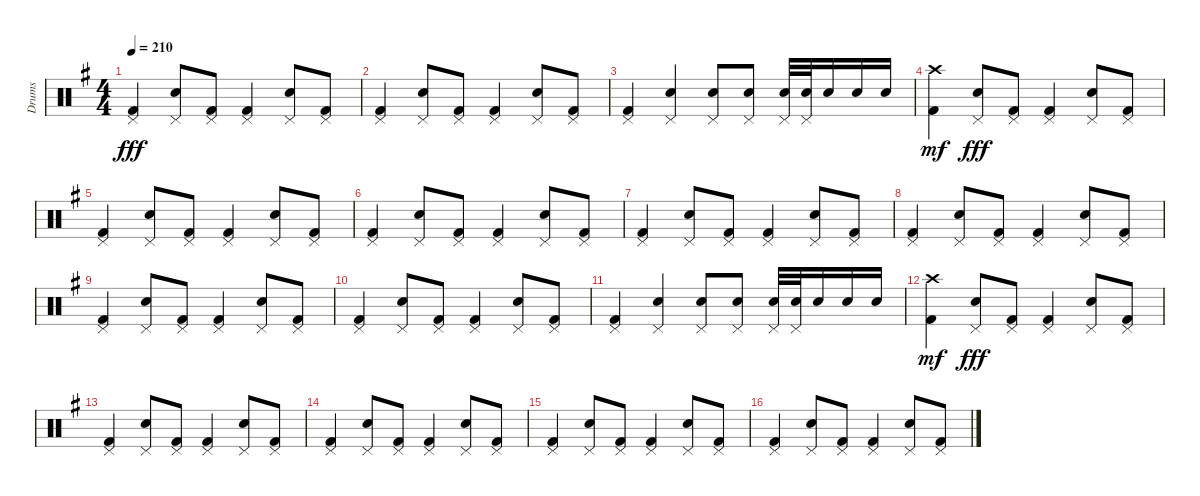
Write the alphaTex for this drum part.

\track ("Drums" "Drums") {instrument percussion}
\staff {score}
\articulation defaults
\ts (4 4)
\tempo 210
\clef neutral
\ks g
("Kick (hit) 2" "Pedal Hi-Hat (hit)").4{dy fff} ("Electric Snare (hit)" "Pedal Hi-Hat (hit)").8 ("Kick (hit) 2" "Pedal Hi-Hat (hit)").8 ("Kick (hit) 2" "Pedal Hi-Hat (hit)").4 ("Electric Snare (hit)" "Pedal Hi-Hat (hit)").8 ("Kick (hit) 2" "Pedal Hi-Hat (hit)").8 |
("Kick (hit) 2" "Pedal Hi-Hat (hit)").4 ("Electric Snare (hit)" "Pedal Hi-Hat (hit)").8 ("Kick (hit) 2" "Pedal Hi-Hat (hit)").8 ("Kick (hit) 2" "Pedal Hi-Hat (hit)").4 ("Electric Snare (hit)" "Pedal Hi-Hat (hit)").8 ("Kick (hit) 2" "Pedal Hi-Hat (hit)").8 |
("Kick (hit) 2" "Pedal Hi-Hat (hit)").4 ("Electric Snare (hit)" "Pedal Hi-Hat (hit)").4 ("Electric Snare (hit)" "Pedal Hi-Hat (hit)").8 ("Electric Snare (hit)" "Pedal Hi-Hat (hit)").8 ("Electric Snare (hit)" "Pedal Hi-Hat (hit)").32 ("Electric Snare (hit)" "Pedal Hi-Hat (hit)").32 "Electric Snare (hit)".16 "Electric Snare (hit)".16 "Electric Snare (hit)".16 |
("Kick (hit) 2" "Crash high (hit)").4{dy mf} ("Electric Snare (hit)" "Pedal Hi-Hat (hit)").8{dy fff} ("Kick (hit) 2" "Pedal Hi-Hat (hit)").8 ("Kick (hit) 2" "Pedal Hi-Hat (hit)").4 ("Electric Snare (hit)" "Pedal Hi-Hat (hit)").8 ("Kick (hit) 2" "Pedal Hi-Hat (hit)").8 |
("Kick (hit) 2" "Pedal Hi-Hat (hit)").4 ("Electric Snare (hit)" "Pedal Hi-Hat (hit)").8 ("Kick (hit) 2" "Pedal Hi-Hat (hit)").8 ("Kick (hit) 2" "Pedal Hi-Hat (hit)").4 ("Electric Snare (hit)" "Pedal Hi-Hat (hit)").8 ("Kick (hit) 2" "Pedal Hi-Hat (hit)").8 |
("Kick (hit) 2" "Pedal Hi-Hat (hit)").4 ("Electric Snare (hit)" "Pedal Hi-Hat (hit)").8 ("Kick (hit) 2" "Pedal Hi-Hat (hit)").8 ("Kick (hit) 2" "Pedal Hi-Hat (hit)").4 ("Electric Snare (hit)" "Pedal Hi-Hat (hit)").8 ("Kick (hit) 2" "Pedal Hi-Hat (hit)").8 |
("Kick (hit) 2" "Pedal Hi-Hat (hit)").4 ("Electric Snare (hit)" "Pedal Hi-Hat (hit)").8 ("Kick (hit) 2" "Pedal Hi-Hat (hit)").8 ("Kick (hit) 2" "Pedal Hi-Hat (hit)").4 ("Electric Snare (hit)" "Pedal Hi-Hat (hit)").8 ("Kick (hit) 2" "Pedal Hi-Hat (hit)").8 |
("Kick (hit) 2" "Pedal Hi-Hat (hit)").4 ("Electric Snare (hit)" "Pedal Hi-Hat (hit)").8 ("Kick (hit) 2" "Pedal Hi-Hat (hit)").8 ("Kick (hit) 2" "Pedal Hi-Hat (hit)").4 ("Electric Snare (hit)" "Pedal Hi-Hat (hit)").8 ("Kick (hit) 2" "Pedal Hi-Hat (hit)").8 |
("Kick (hit) 2" "Pedal Hi-Hat (hit)").4 ("Electric Snare (hit)" "Pedal Hi-Hat (hit)").8 ("Kick (hit) 2" "Pedal Hi-Hat (hit)").8 ("Kick (hit) 2" "Pedal Hi-Hat (hit)").4 ("Electric Snare (hit)" "Pedal Hi-Hat (hit)").8 ("Kick (hit) 2" "Pedal Hi-Hat (hit)").8 |
("Kick (hit) 2" "Pedal Hi-Hat (hit)").4 ("Electric Snare (hit)" "Pedal Hi-Hat (hit)").8 ("Kick (hit) 2" "Pedal Hi-Hat (hit)").8 ("Kick (hit) 2" "Pedal Hi-Hat (hit)").4 ("Electric Snare (hit)" "Pedal Hi-Hat (hit)").8 ("Kick (hit) 2" "Pedal Hi-Hat (hit)").8 |
("Kick (hit) 2" "Pedal Hi-Hat (hit)").4 ("Electric Snare (hit)" "Pedal Hi-Hat (hit)").4 ("Electric Snare (hit)" "Pedal Hi-Hat (hit)").8 ("Electric Snare (hit)" "Pedal Hi-Hat (hit)").8 ("Electric Snare (hit)" "Pedal Hi-Hat (hit)").32 ("Electric Snare (hit)" "Pedal Hi-Hat (hit)").32 "Electric Snare (hit)".16 "Electric Snare (hit)".16 "Electric Snare (hit)".16 |
("Kick (hit) 2" "Crash high (hit)").4{dy mf} ("Electric Snare (hit)" "Pedal Hi-Hat (hit)").8{dy fff} ("Kick (hit) 2" "Pedal Hi-Hat (hit)").8 ("Kick (hit) 2" "Pedal Hi-Hat (hit)").4 ("Electric Snare (hit)" "Pedal Hi-Hat (hit)").8 ("Kick (hit) 2" "Pedal Hi-Hat (hit)").8 |
("Kick (hit) 2" "Pedal Hi-Hat (hit)").4 ("Electric Snare (hit)" "Pedal Hi-Hat (hit)").8 ("Kick (hit) 2" "Pedal Hi-Hat (hit)").8 ("Kick (hit) 2" "Pedal Hi-Hat (hit)").4 ("Electric Snare (hit)" "Pedal Hi-Hat (hit)").8 ("Kick (hit) 2" "Pedal Hi-Hat (hit)").8 |
("Kick (hit) 2" "Pedal Hi-Hat (hit)").4 ("Electric Snare (hit)" "Pedal Hi-Hat (hit)").8 ("Kick (hit) 2" "Pedal Hi-Hat (hit)").8 ("Kick (hit) 2" "Pedal Hi-Hat (hit)").4 ("Electric Snare (hit)" "Pedal Hi-Hat (hit)").8 ("Kick (hit) 2" "Pedal Hi-Hat (hit)").8 |
("Kick (hit) 2" "Pedal Hi-Hat (hit)").4 ("Electric Snare (hit)" "Pedal Hi-Hat (hit)").8 ("Kick (hit) 2" "Pedal Hi-Hat (hit)").8 ("Kick (hit) 2" "Pedal Hi-Hat (hit)").4 ("Electric Snare (hit)" "Pedal Hi-Hat (hit)").8 ("Kick (hit) 2" "Pedal Hi-Hat (hit)").8 |
("Kick (hit) 2" "Pedal Hi-Hat (hit)").4 ("Electric Snare (hit)" "Pedal Hi-Hat (hit)").8 ("Kick (hit) 2" "Pedal Hi-Hat (hit)").8 ("Kick (hit) 2" "Pedal Hi-Hat (hit)").4 ("Electric Snare (hit)" "Pedal Hi-Hat (hit)").8 ("Kick (hit) 2" "Pedal Hi-Hat (hit)").8
